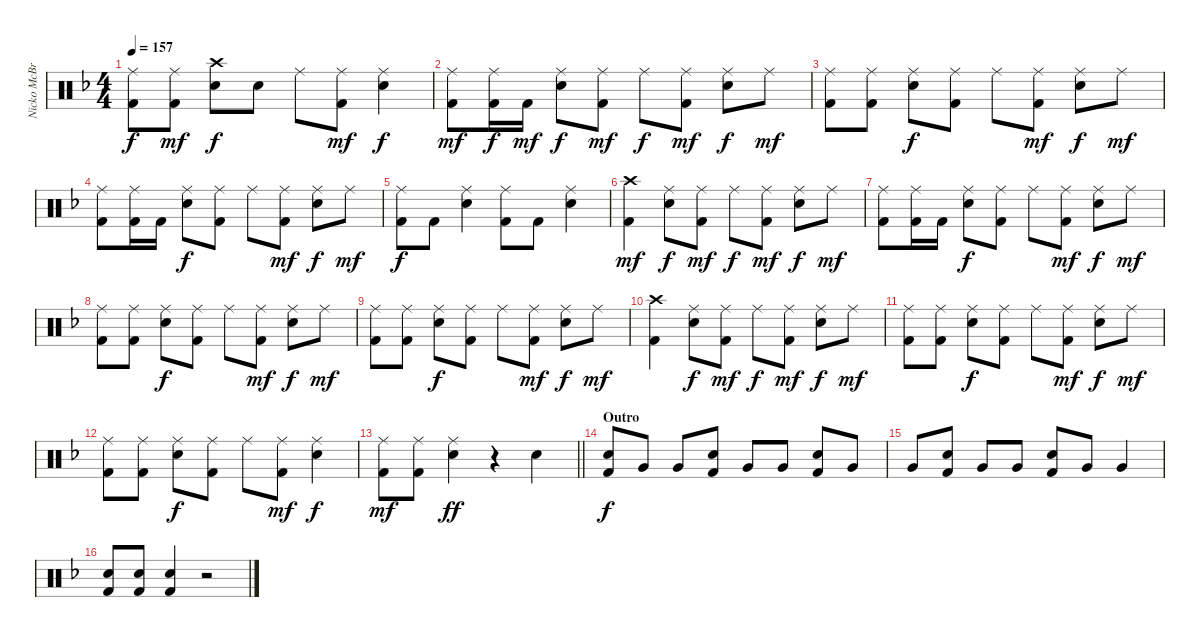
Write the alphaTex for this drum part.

\track ("Nicko McBrain" "Nicko McBr") {instrument percussion}
\staff {score}
\articulation defaults
\ts (4 4)
\tempo 157
\clef neutral
\ks f
("Ride (middle)" "Kick (hit) 2").8{dy f} ("Ride (middle)" "Kick (hit) 2").8{dy mf} ("Crash high (hit)" "Electric Snare (hit)").8{dy f} "Electric Snare (hit)".8 "Ride (middle)".8 ("Ride (middle)" "Kick (hit) 2").8{dy mf} ("Ride (middle)" "Electric Snare (hit)").4{dy f} |
("Ride (middle)" "Kick (hit) 2").8{dy mf} ("Ride (middle)" "Kick (hit) 2").16{dy f} "Kick (hit) 2".16{dy mf} ("Ride (middle)" "Electric Snare (hit)").8{dy f} ("Ride (middle)" "Kick (hit) 2").8{dy mf} "Ride (middle)".8{dy f} ("Ride (middle)" "Kick (hit) 2").8{dy mf} ("Ride (middle)" "Electric Snare (hit)").8{dy f} "Ride (middle)".8{dy mf} |
("Ride (middle)" "Kick (hit) 2").8 ("Ride (middle)" "Kick (hit) 2").8 ("Ride (middle)" "Electric Snare (hit)").8{dy f} ("Ride (middle)" "Kick (hit) 2").8 "Ride (middle)".8 ("Ride (middle)" "Kick (hit) 2").8{dy mf} ("Ride (middle)" "Electric Snare (hit)").8{dy f} "Ride (middle)".8{dy mf} |
("Ride (middle)" "Kick (hit) 2").8 ("Ride (middle)" "Kick (hit) 2").16 "Kick (hit) 2".16 ("Ride (middle)" "Electric Snare (hit)").8{dy f} ("Ride (middle)" "Kick (hit) 2").8 "Ride (middle)".8 ("Ride (middle)" "Kick (hit) 2").8{dy mf} ("Ride (middle)" "Electric Snare (hit)").8{dy f} "Ride (middle)".8{dy mf} |
("Ride (middle)" "Kick (hit) 2").8{dy f} "Kick (hit) 2".8 ("Ride (middle)" "Electric Snare (hit)").4 ("Ride (middle)" "Kick (hit) 2").8 "Kick (hit) 2".8 ("Ride (middle)" "Electric Snare (hit)").4 |
("Crash high (hit)" "Kick (hit) 2").4{dy mf} ("Ride (middle)" "Electric Snare (hit)").8{dy f} ("Ride (middle)" "Kick (hit) 2").8{dy mf} "Ride (middle)".8{dy f} ("Ride (middle)" "Kick (hit) 2").8{dy mf} ("Ride (middle)" "Electric Snare (hit)").8{dy f} "Ride (middle)".8{dy mf} |
("Ride (middle)" "Kick (hit) 2").8 ("Ride (middle)" "Kick (hit) 2").16 "Kick (hit) 2".16 ("Ride (middle)" "Electric Snare (hit)").8{dy f} ("Ride (middle)" "Kick (hit) 2").8 "Ride (middle)".8 ("Ride (middle)" "Kick (hit) 2").8{dy mf} ("Ride (middle)" "Electric Snare (hit)").8{dy f} "Ride (middle)".8{dy mf} |
("Ride (middle)" "Kick (hit) 2").8 ("Ride (middle)" "Kick (hit) 2").8 ("Ride (middle)" "Electric Snare (hit)").8{dy f} ("Ride (middle)" "Kick (hit) 2").8 "Ride (middle)".8 ("Ride (middle)" "Kick (hit) 2").8{dy mf} ("Ride (middle)" "Electric Snare (hit)").8{dy f} "Ride (middle)".8{dy mf} |
("Ride (middle)" "Kick (hit) 2").8 ("Ride (middle)" "Kick (hit) 2").8 ("Ride (middle)" "Electric Snare (hit)").8{dy f} ("Ride (middle)" "Kick (hit) 2").8 "Ride (middle)".8 ("Ride (middle)" "Kick (hit) 2").8{dy mf} ("Ride (middle)" "Electric Snare (hit)").8{dy f} "Ride (middle)".8{dy mf} |
("Crash high (hit)" "Kick (hit) 2").4 ("Ride (middle)" "Electric Snare (hit)").8{dy f} ("Ride (middle)" "Kick (hit) 2").8{dy mf} "Ride (middle)".8{dy f} ("Ride (middle)" "Kick (hit) 2").8{dy mf} ("Ride (middle)" "Electric Snare (hit)").8{dy f} "Ride (middle)".8{dy mf} |
("Ride (middle)" "Kick (hit) 2").8 ("Ride (middle)" "Kick (hit) 2").8 ("Ride (middle)" "Electric Snare (hit)").8{dy f} ("Ride (middle)" "Kick (hit) 2").8 "Ride (middle)".8 ("Ride (middle)" "Kick (hit) 2").8{dy mf} ("Ride (middle)" "Electric Snare (hit)").8{dy f} "Ride (middle)".8{dy mf} |
("Ride (middle)" "Kick (hit) 2").8 ("Ride (middle)" "Kick (hit) 2").8 ("Ride (middle)" "Electric Snare (hit)").8{dy f} ("Ride (middle)" "Kick (hit) 2").8 "Ride (middle)".8 ("Ride (middle)" "Kick (hit) 2").8{dy mf} ("Ride (middle)" "Electric Snare (hit)").4{dy f} |
\barLineRight lightlight
("Ride (middle)" "Kick (hit) 2").8{dy mf} ("Ride (middle)" "Kick (hit) 2").8 ("Ride (middle)" "Electric Snare (hit)").4{dy ff} r.4 "Electric Snare (hit)".4 |
\section ("" "Outro")
("Electric Snare (hit)" "Kick (hit) 2").8{dy f} "Very Low Tom (hit)".8 "Very Low Tom (hit)".8 ("Electric Snare (hit)" "Kick (hit) 2").8 "Very Low Tom (hit)".8 "Very Low Tom (hit)".8 ("Electric Snare (hit)" "Kick (hit) 2").8 "Very Low Tom (hit)".8 |
"Very Low Tom (hit)".8 ("Electric Snare (hit)" "Kick (hit) 2").8 "Very Low Tom (hit)".8 "Very Low Tom (hit)".8 ("Electric Snare (hit)" "Kick (hit) 2").8 "Very Low Tom (hit)".8 "Very Low Tom (hit)".4 |
("Electric Snare (hit)" "Kick (hit) 2").8 ("Electric Snare (hit)" "Kick (hit) 2").8 ("Electric Snare (hit)" "Kick (hit) 2").4 r.2
